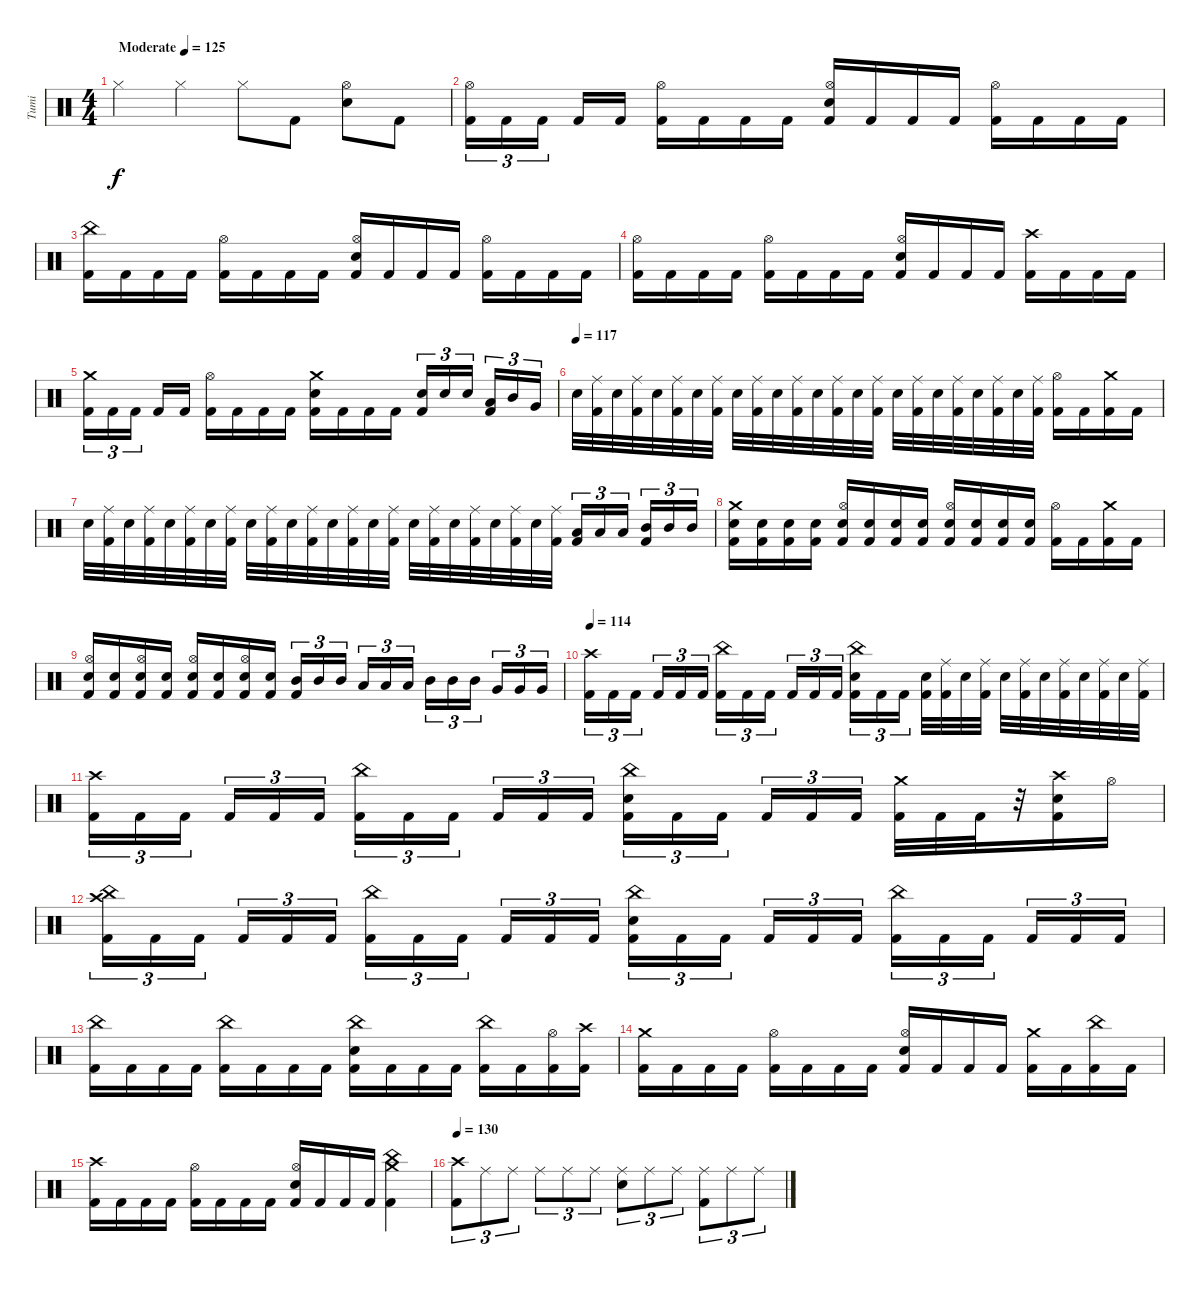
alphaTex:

\track ("Tumi" "Tumi") {instrument percussion}
\staff {score}
\articulation defaults
\ts (4 4)
\tempo (125 "Moderate")
\clef neutral
\ks c "Hi-Hat (closed)".4{dy f} "Hi-Hat (closed)".4 "Hi-Hat (closed)".8 "Kick (hit) 2".8
("Hi-Hat (open)" "Electric Snare (hit)").8 "Kick (hit) 2".8 |
("Hi-Hat (open)" "Kick (hit) 2").16{tu (3 2)} "Kick (hit) 2".16{tu (3 2)} "Kick (hit) 2".16{tu (3 2) beam splitsecondary} "Kick (hit) 2".16 "Kick (hit) 2".16 ("Hi-Hat (open)" "Kick (hit) 2").16 "Kick (hit) 2".16 "Kick (hit) 2".16 "Kick (hit) 2".16 ("Hi-Hat (open)" "Electric Snare (hit)" "Kick (hit) 2").16 "Kick (hit) 2".16 "Kick (hit) 2".16 "Kick (hit) 2".16 ("Hi-Hat (open)" "Kick (hit) 2").16 "Kick (hit) 2".16 "Kick (hit) 2".16 "Kick (hit) 2".16 |
("China (hit)" "Kick (hit) 2").16 "Kick (hit) 2".16 "Kick (hit) 2".16 "Kick (hit) 2".16 ("Hi-Hat (open)" "Kick (hit) 2").16 "Kick (hit) 2".16 "Kick (hit) 2".16 "Kick (hit) 2".16 ("Hi-Hat (open)" "Electric Snare (hit)" "Kick (hit) 2").16 "Kick (hit) 2".16 "Kick (hit) 2".16 "Kick (hit) 2".16 ("Hi-Hat (open)" "Kick (hit) 2").16 "Kick (hit) 2".16 "Kick (hit) 2".16 "Kick (hit) 2".16 |
("Hi-Hat (open)" "Kick (hit) 2").16 "Kick (hit) 2".16 "Kick (hit) 2".16 "Kick (hit) 2".16 ("Hi-Hat (open)" "Kick (hit) 2").16 "Kick (hit) 2".16 "Kick (hit) 2".16 "Kick (hit) 2".16 ("Hi-Hat (open)" "Electric Snare (hit)" "Kick (hit) 2").16 "Kick (hit) 2".16 "Kick (hit) 2".16 "Kick (hit) 2".16 ("Crash high (hit)" "Kick (hit) 2").16 "Kick (hit) 2".16 "Kick (hit) 2".16 "Kick (hit) 2".16 |
("Crash medium (hit)" "Kick (hit) 2").16{tu (3 2)} "Kick (hit) 2".16{tu (3 2)} "Kick (hit) 2".16{tu (3 2) beam splitsecondary} "Kick (hit) 2".16 "Kick (hit) 2".16 ("Hi-Hat (open)" "Kick (hit) 2").16 "Kick (hit) 2".16 "Kick (hit) 2".16 "Kick (hit) 2".16 ("Crash medium (hit)" "Electric Snare (hit)" "Kick (hit) 2").16 "Kick (hit) 2".16 "Kick (hit) 2".16 "Kick (hit) 2".16 ("Electric Snare (hit)" "Kick (hit) 2").16{tu (3 2)} "Electric Snare (hit)".16{tu (3 2)} "Electric Snare (hit)".16{tu (3 2) beam splitsecondary} ("Low Tom (hit)" "Kick (hit) 2").16{tu (3 2)} "Mid Tom (hit)".16{tu (3 2)} "Very Low Tom (hit)".16{tu (3 2)} |
\tempo (117)
"Electric Snare (hit)".32 ("Ride (middle)" "Kick (hit) 2").32 "Electric Snare (hit)".32 ("Ride (middle)" "Kick (hit) 2").32 "Electric Snare (hit)".32 ("Ride (middle)" "Kick (hit) 2").32 "Electric Snare (hit)".32 ("Ride (middle)" "Kick (hit) 2").32 "Electric Snare (hit)".32 ("Ride (middle)" "Kick (hit) 2").32 "Electric Snare (hit)".32 ("Ride (middle)" "Kick (hit) 2").32 "Electric Snare (hit)".32 ("Ride (middle)" "Kick (hit) 2").32 "Electric Snare (hit)".32 ("Ride (middle)" "Kick (hit) 2").32 "Electric Snare (hit)".32 ("Ride (middle)" "Kick (hit) 2").32 "Electric Snare (hit)".32 ("Ride (middle)" "Kick (hit) 2").32 "Electric Snare (hit)".32 ("Ride (middle)" "Kick (hit) 2").32 "Electric Snare (hit)".32 ("Ride (middle)" "Kick (hit) 2").32 ("Hi-Hat (open)" "Kick (hit) 2").16 "Kick (hit) 2".16 ("Crash medium (hit)" "Kick (hit) 2").16 "Kick (hit) 2".16 |
"Electric Snare (hit)".32 ("Ride (middle)" "Kick (hit) 2").32 "Electric Snare (hit)".32 ("Ride (middle)" "Kick (hit) 2").32 "Electric Snare (hit)".32 ("Ride (middle)" "Kick (hit) 2").32 "Electric Snare (hit)".32 ("Ride (middle)" "Kick (hit) 2").32 "Electric Snare (hit)".32 ("Ride (middle)" "Kick (hit) 2").32 "Electric Snare (hit)".32 ("Ride (middle)" "Kick (hit) 2").32 "Electric Snare (hit)".32 ("Ride (middle)" "Kick (hit) 2").32 "Electric Snare (hit)".32 ("Ride (middle)" "Kick (hit) 2").32 "Electric Snare (hit)".32 ("Ride (middle)" "Kick (hit) 2").32 "Electric Snare (hit)".32 ("Ride (middle)" "Kick (hit) 2").32 "Electric Snare (hit)".32 ("Ride (middle)" "Kick (hit) 2").32 "Electric Snare (hit)".32 ("Ride (middle)" "Kick (hit) 2").32 ("Low Tom (hit)" "Kick (hit) 2").16{tu (3 2)} "Low Tom (hit)".16{tu (3 2)} "Low Tom (hit)".16{tu (3 2) beam splitsecondary} ("Mid Tom (hit)" "Kick (hit) 2").16{tu (3 2)} "Mid Tom (hit)".16{tu (3 2)} "Mid Tom (hit)".16{tu (3 2)} |
("Crash medium (hit)" "Electric Snare (hit)" "Kick (hit) 2").16 ("Electric Snare (hit)" "Kick (hit) 2").16 ("Electric Snare (hit)" "Kick (hit) 2").16 ("Electric Snare (hit)" "Kick (hit) 2").16 ("Hi-Hat (open)" "Electric Snare (hit)" "Kick (hit) 2").16 ("Electric Snare (hit)" "Kick (hit) 2").16 ("Electric Snare (hit)" "Kick (hit) 2").16 ("Electric Snare (hit)" "Kick (hit) 2").16 ("Hi-Hat (open)" "Electric Snare (hit)" "Kick (hit) 2").16 ("Electric Snare (hit)" "Kick (hit) 2").16 ("Electric Snare (hit)" "Kick (hit) 2").16 ("Electric Snare (hit)" "Kick (hit) 2").16 ("Hi-Hat (open)" "Kick (hit) 2").16 "Kick (hit) 2".16 ("Crash medium (hit)" "Kick (hit) 2").16 "Kick (hit) 2".16 |
("Hi-Hat (open)" "Electric Snare (hit)" "Kick (hit) 2").16 ("Electric Snare (hit)" "Kick (hit) 2").16 ("Hi-Hat (open)" "Electric Snare (hit)" "Kick (hit) 2").16 ("Electric Snare (hit)" "Kick (hit) 2").16 ("Hi-Hat (open)" "Electric Snare (hit)" "Kick (hit) 2").16 ("Electric Snare (hit)" "Kick (hit) 2").16 ("Hi-Hat (open)" "Electric Snare (hit)" "Kick (hit) 2").16 ("Electric Snare (hit)" "Kick (hit) 2").16 ("Mid Tom (hit)" "Kick (hit) 2").16{tu (3 2)} "Mid Tom (hit)".16{tu (3 2)} "Mid Tom (hit)".16{tu (3 2) beam splitsecondary} "Low Tom (hit)".16{tu (3 2)} "Low Tom (hit)".16{tu (3 2)} "Low Tom (hit)".16{tu (3 2)} "Mid Tom (hit)".16{tu (3 2)} "Mid Tom (hit)".16{tu (3 2)} "Mid Tom (hit)".16{tu (3 2) beam splitsecondary} "Very Low Tom (hit)".16{tu (3 2)} "Very Low Tom (hit)".16{tu (3 2)} "Very Low Tom (hit)".16{tu (3 2)} |
\tempo 114
("Crash high (hit)" "Kick (hit) 2").16{tu (3 2)} "Kick (hit) 2".16{tu (3 2)} "Kick (hit) 2".16{tu (3 2) beam splitsecondary} "Kick (hit) 2".16{tu (3 2)} "Kick (hit) 2".16{tu (3 2)} "Kick (hit) 2".16{tu (3 2)} ("China (hit)" "Kick (hit) 2").16{tu (3 2)} "Kick (hit) 2".16{tu (3 2)} "Kick (hit) 2".16{tu (3 2) beam splitsecondary} "Kick (hit) 2".16{tu (3 2)} "Kick (hit) 2".16{tu (3 2)} "Kick (hit) 2".16{tu (3 2)} ("China (hit)" "Electric Snare (hit)" "Kick (hit) 2").16{tu (3 2)} "Kick (hit) 2".16{tu (3 2)} "Kick (hit) 2".16{tu (3 2) beam splitsecondary} ("Electric Snare (hit)" "Kick (hit) 2").32 ("Ride (middle)" "Kick (hit) 2").32 "Electric Snare (hit)".32 ("Ride (middle)" "Kick (hit) 2").32 "Electric Snare (hit)".32 ("Ride (middle)" "Kick (hit) 2").32 "Electric Snare (hit)".32 ("Ride (middle)" "Kick (hit) 2").32 "Electric Snare (hit)".32 ("Ride (middle)" "Kick (hit) 2").32 "Electric Snare (hit)".32 ("Ride (middle)" "Kick (hit) 2").32 |
("Crash high (hit)" "Kick (hit) 2").16{tu (3 2)} "Kick (hit) 2".16{tu (3 2)} "Kick (hit) 2".16{tu (3 2) beam splitsecondary} "Kick (hit) 2".16{tu (3 2)} "Kick (hit) 2".16{tu (3 2)} "Kick (hit) 2".16{tu (3 2)} ("China (hit)" "Kick (hit) 2").16{tu (3 2)} "Kick (hit) 2".16{tu (3 2)} "Kick (hit) 2".16{tu (3 2) beam splitsecondary} "Kick (hit) 2".16{tu (3 2)} "Kick (hit) 2".16{tu (3 2)} "Kick (hit) 2".16{tu (3 2)} ("China (hit)" "Electric Snare (hit)" "Kick (hit) 2").16{tu (3 2)} "Kick (hit) 2".16{tu (3 2)} "Kick (hit) 2".16{tu (3 2) beam splitsecondary} "Kick (hit) 2".16{tu (3 2)} "Kick (hit) 2".16{tu (3 2)} "Kick (hit) 2".16{tu (3 2)} ("Crash medium (hit)" "Kick (hit) 2").32 "Kick (hit) 2".32 "Kick (hit) 2".32 r.32 ("Crash high (hit)" "Electric Snare (hit)" "Kick (hit) 2").16 "Hi-Hat (open)".16 |
("China (hit)" "Crash high (hit)" "Kick (hit) 2").16{tu (3 2)} "Kick (hit) 2".16{tu (3 2)} "Kick (hit) 2".16{tu (3 2) beam splitsecondary} "Kick (hit) 2".16{tu (3 2)} "Kick (hit) 2".16{tu (3 2)} "Kick (hit) 2".16{tu (3 2)} ("China (hit)" "Kick (hit) 2").16{tu (3 2)} "Kick (hit) 2".16{tu (3 2)} "Kick (hit) 2".16{tu (3 2) beam splitsecondary} "Kick (hit) 2".16{tu (3 2)} "Kick (hit) 2".16{tu (3 2)} "Kick (hit) 2".16{tu (3 2)} ("China (hit)" "Electric Snare (hit)" "Kick (hit) 2").16{tu (3 2)} "Kick (hit) 2".16{tu (3 2)} "Kick (hit) 2".16{tu (3 2) beam splitsecondary} "Kick (hit) 2".16{tu (3 2)} "Kick (hit) 2".16{tu (3 2)} "Kick (hit) 2".16{tu (3 2)} ("China (hit)" "Kick (hit) 2").16{tu (3 2)} "Kick (hit) 2".16{tu (3 2)} "Kick (hit) 2".16{tu (3 2) beam splitsecondary} "Kick (hit) 2".16{tu (3 2)} "Kick (hit) 2".16{tu (3 2)} "Kick (hit) 2".16{tu (3 2)} |
("China (hit)" "Kick (hit) 2").16 "Kick (hit) 2".16 "Kick (hit) 2".16 "Kick (hit) 2".16 ("China (hit)" "Kick (hit) 2").16 "Kick (hit) 2".16 "Kick (hit) 2".16 "Kick (hit) 2".16 ("China (hit)" "Electric Snare (hit)" "Kick (hit) 2").16 "Kick (hit) 2".16 "Kick (hit) 2".16 "Kick (hit) 2".16 ("China (hit)" "Kick (hit) 2").16 "Kick (hit) 2".16 ("Hi-Hat (open)" "Kick (hit) 2").16 ("Crash high (hit)" "Kick (hit) 2").16 |
("Crash medium (hit)" "Kick (hit) 2").16 "Kick (hit) 2".16 "Kick (hit) 2".16 "Kick (hit) 2".16 ("Hi-Hat (open)" "Kick (hit) 2").16 "Kick (hit) 2".16 "Kick (hit) 2".16 "Kick (hit) 2".16 ("Hi-Hat (open)" "Electric Snare (hit)" "Kick (hit) 2").16 "Kick (hit) 2".16 "Kick (hit) 2".16 "Kick (hit) 2".16 ("Crash medium (hit)" "Kick (hit) 2").16 "Kick (hit) 2".16 ("China (hit)" "Kick (hit) 2").16 "Kick (hit) 2".16 |
("Crash high (hit)" "Kick (hit) 2").16 "Kick (hit) 2".16 "Kick (hit) 2".16 "Kick (hit) 2".16 ("Hi-Hat (open)" "Kick (hit) 2").16 "Kick (hit) 2".16 "Kick (hit) 2".16 "Kick (hit) 2".16 ("Hi-Hat (open)" "Electric Snare (hit)" "Kick (hit) 2").16 "Kick (hit) 2".16 "Kick (hit) 2".16 "Kick (hit) 2".16 ("Crash medium (hit)" "China (hit)" "Kick (hit) 2").4 |
\tempo 130
("Crash high (hit)" "Kick (hit) 2").8{tu (3 2)} "Ride (middle)".8{tu (3 2)} "Ride (middle)".8{tu (3 2)} "Ride (middle)".8{tu (3 2)} "Ride (middle)".8{tu (3 2)} "Ride (middle)".8{tu (3 2)} ("Ride (middle)" "Electric Snare (hit)").8{tu (3 2)} "Ride (middle)".8{tu (3 2)} "Ride (middle)".8{tu (3 2)} ("Ride (middle)" "Kick (hit) 2").8{tu (3 2)} "Ride (middle)".8{tu (3 2)} "Ride (middle)".8{tu (3 2)}
